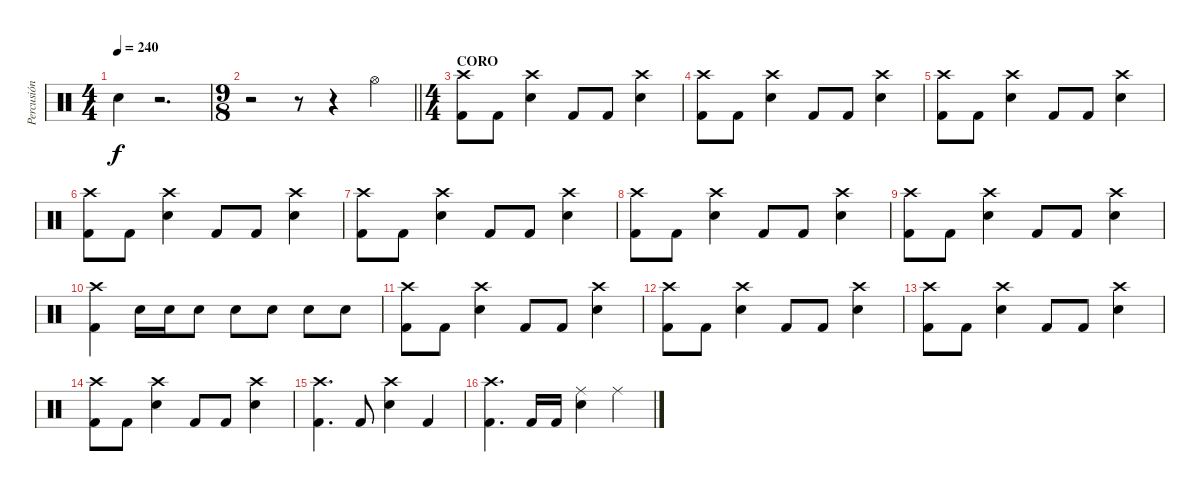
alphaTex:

\track ("Percusión" "Percusión") {instrument percussion}
\staff {score}
\articulation defaults
\ts (4 4)
\tempo 240
\clef neutral
\ks c "Electric Snare (hit)".4{dy f}
r.2{d} |
\ts (9 8)
\barLineRight lightlight
r.2 r.8 r.4 "Hi-Hat (open)".4 |
\ts (4 4)
\section ("" "CORO")
("Crash high (hit)" "Kick (hit) 2").8 "Kick (hit) 2".8 ("Crash high (hit)" "Electric Snare (hit)").4 "Kick (hit) 2".8 "Kick (hit) 2".8 ("Crash high (hit)" "Electric Snare (hit)").4 |
("Crash high (hit)" "Kick (hit) 2").8 "Kick (hit) 2".8 ("Crash high (hit)" "Electric Snare (hit)").4 "Kick (hit) 2".8 "Kick (hit) 2".8 ("Crash high (hit)" "Electric Snare (hit)").4 |
("Crash high (hit)" "Kick (hit) 2").8 "Kick (hit) 2".8 ("Crash high (hit)" "Electric Snare (hit)").4 "Kick (hit) 2".8 "Kick (hit) 2".8 ("Crash high (hit)" "Electric Snare (hit)").4 |
("Crash high (hit)" "Kick (hit) 2").8 "Kick (hit) 2".8 ("Crash high (hit)" "Electric Snare (hit)").4 "Kick (hit) 2".8 "Kick (hit) 2".8 ("Crash high (hit)" "Electric Snare (hit)").4 |
("Crash high (hit)" "Kick (hit) 2").8 "Kick (hit) 2".8 ("Crash high (hit)" "Electric Snare (hit)").4 "Kick (hit) 2".8 "Kick (hit) 2".8 ("Crash high (hit)" "Electric Snare (hit)").4 |
("Crash high (hit)" "Kick (hit) 2").8 "Kick (hit) 2".8 ("Crash high (hit)" "Electric Snare (hit)").4 "Kick (hit) 2".8 "Kick (hit) 2".8 ("Crash high (hit)" "Electric Snare (hit)").4 |
("Crash high (hit)" "Kick (hit) 2").8 "Kick (hit) 2".8 ("Crash high (hit)" "Electric Snare (hit)").4 "Kick (hit) 2".8 "Kick (hit) 2".8 ("Crash high (hit)" "Electric Snare (hit)").4 |
("Crash high (hit)" "Kick (hit) 2").4 "Electric Snare (hit)".16 "Electric Snare (hit)".16 "Electric Snare (hit)".8 "Electric Snare (hit)".8 "Electric Snare (hit)".8 "Electric Snare (hit)".8 "Electric Snare (hit)".8 |
("Crash high (hit)" "Kick (hit) 2").8 "Kick (hit) 2".8 ("Crash high (hit)" "Electric Snare (hit)").4 "Kick (hit) 2".8 "Kick (hit) 2".8 ("Crash high (hit)" "Electric Snare (hit)").4 |
("Crash high (hit)" "Kick (hit) 2").8 "Kick (hit) 2".8 ("Crash high (hit)" "Electric Snare (hit)").4 "Kick (hit) 2".8 "Kick (hit) 2".8 ("Crash high (hit)" "Electric Snare (hit)").4 |
("Crash high (hit)" "Kick (hit) 2").8 "Kick (hit) 2".8 ("Crash high (hit)" "Electric Snare (hit)").4 "Kick (hit) 2".8 "Kick (hit) 2".8 ("Crash high (hit)" "Electric Snare (hit)").4 |
("Crash high (hit)" "Kick (hit) 2").8 "Kick (hit) 2".8 ("Crash high (hit)" "Electric Snare (hit)").4 "Kick (hit) 2".8 "Kick (hit) 2".8 ("Crash high (hit)" "Electric Snare (hit)").4 |
("Crash high (hit)" "Kick (hit) 2").4{d} "Kick (hit) 2".8 ("Crash high (hit)" "Electric Snare (hit)").4 "Kick (hit) 2".4 |
("Crash high (hit)" "Kick (hit) 2").4{d} "Kick (hit) 2".16 "Kick (hit) 2".16 ("Ride (middle)" "Electric Snare (hit)").4 "Ride (middle)".4
